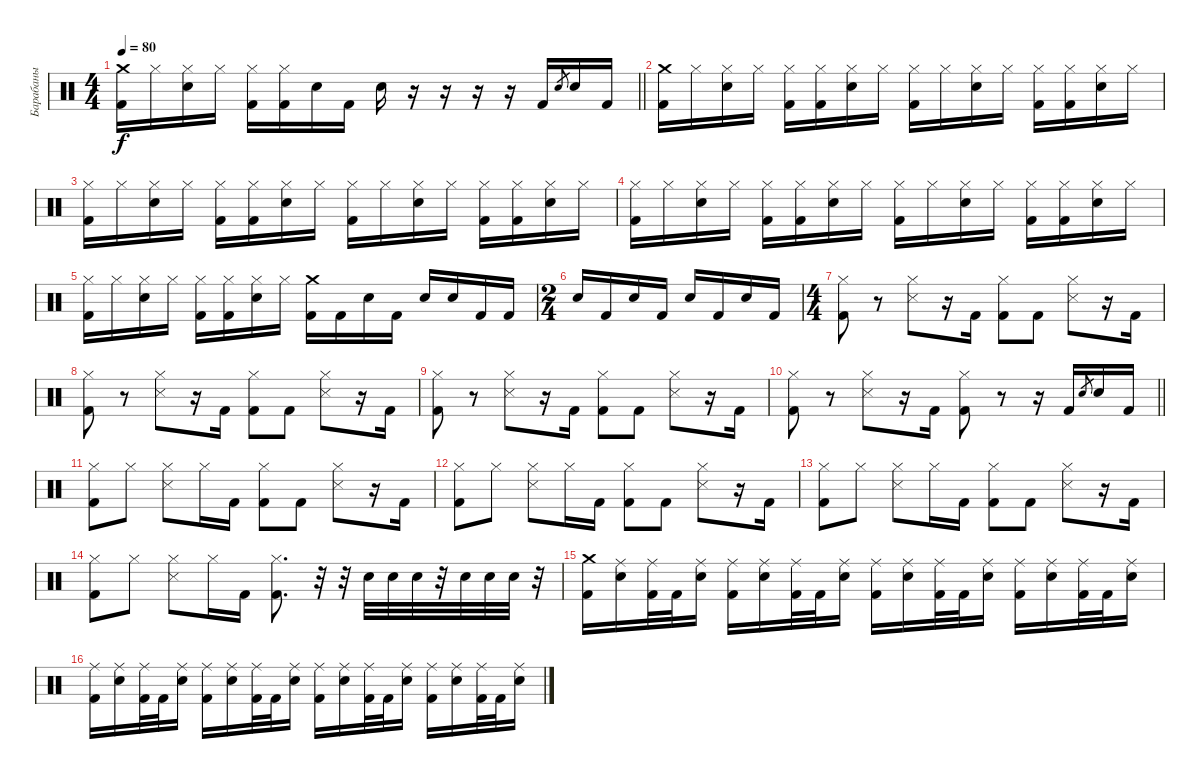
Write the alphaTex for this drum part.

\track ("Барабаны" "Барабаны") {instrument percussion}
\staff {score}
\articulation defaults
\ts (4 4)
\tempo 80
\clef neutral
\barLineRight lightlight
\ks c
("Crash medium (hit)" "Kick (hit) 2").16{dy f} "Hi-Hat (closed)".16 ("Hi-Hat (closed)" "Snare (hit) 2").16 "Hi-Hat (closed)".16 ("Hi-Hat (closed)" "Kick (hit) 2").16 ("Hi-Hat (closed)" "Kick (hit) 2").16 "Snare (hit) 2".16 "Kick (hit) 2".16 "Snare (hit) 2".16 r.16 r.16 r.16 r.16 "Kick (hit) 2".16 "Electric Snare (hit)".8{gr} "Snare (hit) 2".16 "Kick (hit) 2".16 |
("Crash medium (hit)" "Kick (hit) 2").16 "Hi-Hat (closed)".16 ("Hi-Hat (closed)" "Snare (hit) 2").16 "Hi-Hat (closed)".16 ("Hi-Hat (closed)" "Kick (hit) 2").16 ("Hi-Hat (closed)" "Kick (hit) 2").16 ("Hi-Hat (closed)" "Snare (hit) 2").16 "Hi-Hat (closed)".16 ("Hi-Hat (closed)" "Kick (hit) 2").16 "Hi-Hat (closed)".16 ("Hi-Hat (closed)" "Snare (hit) 2").16 "Hi-Hat (closed)".16 ("Hi-Hat (closed)" "Kick (hit) 2").16 ("Hi-Hat (closed)" "Kick (hit) 2").16 ("Hi-Hat (closed)" "Snare (hit) 2").16 "Hi-Hat (closed)".16 |
("Hi-Hat (closed)" "Kick (hit) 2").16 "Hi-Hat (closed)".16 ("Hi-Hat (closed)" "Snare (hit) 2").16 "Hi-Hat (closed)".16 ("Hi-Hat (closed)" "Kick (hit) 2").16 ("Hi-Hat (closed)" "Kick (hit) 2").16 ("Hi-Hat (closed)" "Snare (hit) 2").16 "Hi-Hat (closed)".16 ("Hi-Hat (closed)" "Kick (hit) 2").16 "Hi-Hat (closed)".16 ("Hi-Hat (closed)" "Snare (hit) 2").16 "Hi-Hat (closed)".16 ("Hi-Hat (closed)" "Kick (hit) 2").16 ("Hi-Hat (closed)" "Kick (hit) 2").16 ("Hi-Hat (closed)" "Snare (hit) 2").16 "Hi-Hat (closed)".16 |
("Hi-Hat (closed)" "Kick (hit) 2").16 "Hi-Hat (closed)".16 ("Hi-Hat (closed)" "Snare (hit) 2").16 "Hi-Hat (closed)".16 ("Hi-Hat (closed)" "Kick (hit) 2").16 ("Hi-Hat (closed)" "Kick (hit) 2").16 ("Hi-Hat (closed)" "Snare (hit) 2").16 "Hi-Hat (closed)".16 ("Hi-Hat (closed)" "Kick (hit) 2").16 "Hi-Hat (closed)".16 ("Hi-Hat (closed)" "Snare (hit) 2").16 "Hi-Hat (closed)".16 ("Hi-Hat (closed)" "Kick (hit) 2").16 ("Hi-Hat (closed)" "Kick (hit) 2").16 ("Hi-Hat (closed)" "Snare (hit) 2").16 "Hi-Hat (closed)".16 |
("Hi-Hat (closed)" "Kick (hit) 2").16 "Hi-Hat (closed)".16 ("Hi-Hat (closed)" "Snare (hit) 2").16 "Hi-Hat (closed)".16 ("Hi-Hat (closed)" "Kick (hit) 2").16 ("Hi-Hat (closed)" "Kick (hit) 2").16 ("Hi-Hat (closed)" "Snare (hit) 2").16 "Hi-Hat (closed)".16 ("Crash medium (hit)" "Kick (hit) 2").16 "Kick (hit) 2".16 "Snare (hit)".16 "Kick (hit) 2".16 "Snare (hit) 2".16 "Snare (hit)".16 "Kick (hit) 2".16 "Kick (hit) 2".16 |
\ts (2 4)
"Snare (hit)".16 "Kick (hit) 2".16 "Snare (hit) 2".16 "Kick (hit) 2".16 "Snare (hit) 2".16 "Kick (hit) 2".16 "Snare (hit) 2".16 "Kick (hit) 2".16 |
\ts (4 4)
("Hi-Hat (closed)" "Kick (hit) 2").8 r.8 ("Hi-Hat (closed)" "Snare (side stick) 3").8 r.16 "Kick (hit) 2".16 ("Hi-Hat (closed)" "Kick (hit) 2").8 "Kick (hit) 2".8 ("Hi-Hat (closed)" "Snare (side stick) 3").8 r.16 "Kick (hit) 2".16 |
("Hi-Hat (closed)" "Kick (hit) 2").8 r.8 ("Hi-Hat (closed)" "Snare (side stick) 3").8 r.16 "Kick (hit) 2".16 ("Hi-Hat (closed)" "Kick (hit) 2").8 "Kick (hit) 2".8 ("Hi-Hat (closed)" "Snare (side stick) 3").8 r.16 "Kick (hit) 2".16 |
("Hi-Hat (closed)" "Kick (hit) 2").8 r.8 ("Hi-Hat (closed)" "Snare (side stick) 3").8 r.16 "Kick (hit) 2".16 ("Hi-Hat (closed)" "Kick (hit) 2").8 "Kick (hit) 2".8 ("Hi-Hat (closed)" "Snare (side stick) 3").8 r.16 "Kick (hit) 2".16 |
\barLineRight lightlight
("Hi-Hat (closed)" "Kick (hit) 2").8 r.8 ("Hi-Hat (closed)" "Snare (side stick) 3").8 r.16 "Kick (hit) 2".16 ("Hi-Hat (closed)" "Kick (hit) 2").8 r.8 r.16 "Kick (hit) 2".16 "Electric Snare (hit)".8{gr} "Snare (hit) 2".16 "Kick (hit) 2".16 |
("Hi-Hat (closed)" "Kick (hit) 2").8 "Hi-Hat (closed)".8 ("Hi-Hat (closed)" "Snare (side stick) 3").8 "Hi-Hat (closed)".16 "Kick (hit) 2".16 ("Hi-Hat (closed)" "Kick (hit) 2").8 "Kick (hit) 2".8 ("Hi-Hat (closed)" "Snare (side stick) 3").8 r.16 "Kick (hit) 2".16 |
("Hi-Hat (closed)" "Kick (hit) 2").8 "Hi-Hat (closed)".8 ("Hi-Hat (closed)" "Snare (side stick) 3").8 "Hi-Hat (closed)".16 "Kick (hit) 2".16 ("Hi-Hat (closed)" "Kick (hit) 2").8 "Kick (hit) 2".8 ("Hi-Hat (closed)" "Snare (side stick) 3").8 r.16 "Kick (hit) 2".16 |
("Hi-Hat (closed)" "Kick (hit) 2").8 "Hi-Hat (closed)".8 ("Hi-Hat (closed)" "Snare (side stick) 3").8 "Hi-Hat (closed)".16 "Kick (hit) 2".16 ("Hi-Hat (closed)" "Kick (hit) 2").8 "Kick (hit) 2".8 ("Hi-Hat (closed)" "Snare (side stick) 3").8 r.16 "Kick (hit) 2".16 |
("Hi-Hat (closed)" "Kick (hit) 2").8 "Hi-Hat (closed)".8 ("Hi-Hat (closed)" "Snare (side stick) 3").8 "Hi-Hat (closed)".16 "Kick (hit) 2".16 ("Hi-Hat (closed)" "Kick (hit) 2").8{d} r.32 r.32 "Snare (hit) 2".32 "Snare (hit) 2".32 "Snare (hit) 2".32 r.32 "Snare (hit) 2".32 "Snare (hit) 2".32 "Snare (hit) 2".32 r.32 |
("Crash medium (hit)" "Kick (hit) 2").16 ("Ride (middle)" "Snare (hit) 2").16 ("Ride (middle)" "Kick (hit) 2").32 "Kick (hit) 2".32 ("Ride (middle)" "Snare (hit) 2").16 ("Ride (middle)" "Kick (hit) 2").16 ("Ride (middle)" "Snare (hit) 2").16 ("Ride (middle)" "Kick (hit) 2").32 "Kick (hit) 2".32 ("Ride (middle)" "Snare (hit) 2").16 ("Ride (middle)" "Kick (hit) 2").16 ("Ride (middle)" "Snare (hit) 2").16 ("Ride (middle)" "Kick (hit) 2").32 "Kick (hit) 2".32 ("Ride (middle)" "Snare (hit) 2").16 ("Ride (middle)" "Kick (hit) 2").16 ("Ride (middle)" "Snare (hit) 2").16 ("Ride (middle)" "Kick (hit) 2").32 "Kick (hit) 2".32 ("Ride (middle)" "Snare (hit) 2").16 |
("Ride (middle)" "Kick (hit) 2").16 ("Ride (middle)" "Snare (hit) 2").16 ("Ride (middle)" "Kick (hit) 2").32 "Kick (hit) 2".32 ("Ride (middle)" "Snare (hit) 2").16 ("Ride (middle)" "Kick (hit) 2").16 ("Ride (middle)" "Snare (hit) 2").16 ("Ride (middle)" "Kick (hit) 2").32 "Kick (hit) 2".32 ("Ride (middle)" "Snare (hit) 2").16 ("Ride (middle)" "Kick (hit) 2").16 ("Ride (middle)" "Snare (hit) 2").16 ("Ride (middle)" "Kick (hit) 2").32 "Kick (hit) 2".32 ("Ride (middle)" "Snare (hit) 2").16 ("Ride (middle)" "Kick (hit) 2").16 ("Ride (middle)" "Snare (hit) 2").16 ("Ride (middle)" "Kick (hit) 2").32 "Kick (hit) 2".32 ("Ride (middle)" "Snare (hit) 2").16
